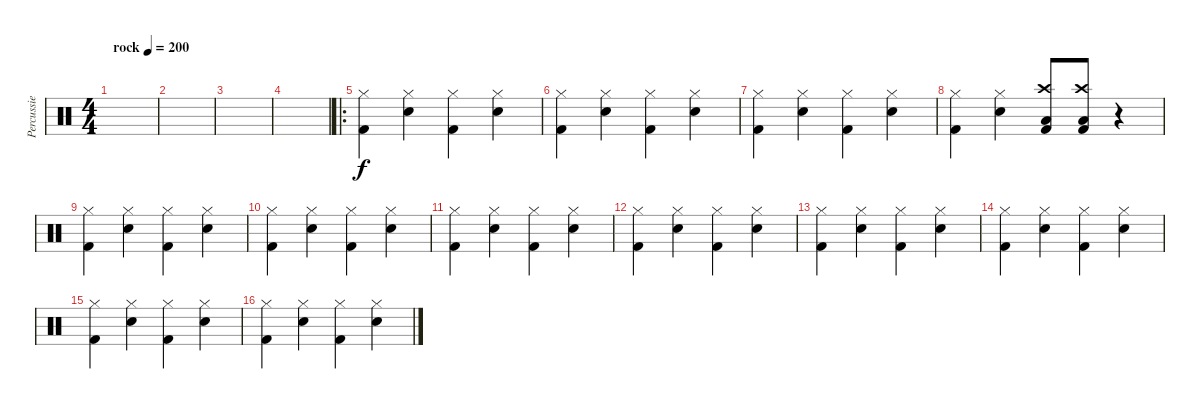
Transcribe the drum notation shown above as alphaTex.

\track ("Percussie" "Percussie") {instrument percussion}
\staff {score}
\articulation defaults
\ts (4 4)
\tempo (200 "rock")
\clef neutral
\ks c
|
|
|
|
\ro
("Hi-Hat (closed)" "Kick (hit) 2").4 ("Hi-Hat (closed)" "Snare (hit) 2").4 ("Hi-Hat (closed)" "Kick (hit) 2").4 ("Hi-Hat (closed)" "Snare (hit) 2").4 |
("Hi-Hat (closed)" "Kick (hit) 2").4 ("Hi-Hat (closed)" "Snare (hit) 2").4 ("Hi-Hat (closed)" "Kick (hit) 2").4 ("Hi-Hat (closed)" "Snare (hit) 2").4 |
("Hi-Hat (closed)" "Kick (hit) 2").4 ("Hi-Hat (closed)" "Snare (hit) 2").4 ("Hi-Hat (closed)" "Kick (hit) 2").4 ("Hi-Hat (closed)" "Snare (hit) 2").4 |
("Hi-Hat (closed)" "Kick (hit) 2").4 ("Hi-Hat (closed)" "Snare (hit) 2").4 ("Crash high (hit)" "Low Floor Tom (hit)" "Kick (hit) 2").8 ("Crash high (hit)" "Low Floor Tom (hit)" "Kick (hit) 2").8 r.4 |
("Hi-Hat (closed)" "Kick (hit) 2").4 ("Hi-Hat (closed)" "Snare (hit) 2").4 ("Hi-Hat (closed)" "Kick (hit) 2").4 ("Hi-Hat (closed)" "Snare (hit) 2").4 |
("Hi-Hat (closed)" "Kick (hit) 2").4 ("Hi-Hat (closed)" "Snare (hit) 2").4 ("Hi-Hat (closed)" "Kick (hit) 2").4 ("Hi-Hat (closed)" "Snare (hit) 2").4 |
("Hi-Hat (closed)" "Kick (hit) 2").4 ("Hi-Hat (closed)" "Snare (hit) 2").4 ("Hi-Hat (closed)" "Kick (hit) 2").4 ("Hi-Hat (closed)" "Snare (hit) 2").4 |
("Hi-Hat (closed)" "Kick (hit) 2").4 ("Hi-Hat (closed)" "Snare (hit) 2").4 ("Hi-Hat (closed)" "Kick (hit) 2").4 ("Hi-Hat (closed)" "Snare (hit) 2").4 |
("Hi-Hat (closed)" "Kick (hit) 2").4 ("Hi-Hat (closed)" "Snare (hit) 2").4 ("Hi-Hat (closed)" "Kick (hit) 2").4 ("Hi-Hat (closed)" "Snare (hit) 2").4 |
("Hi-Hat (closed)" "Kick (hit) 2").4 ("Hi-Hat (closed)" "Snare (hit) 2").4 ("Hi-Hat (closed)" "Kick (hit) 2").4 ("Hi-Hat (closed)" "Snare (hit) 2").4 |
("Hi-Hat (closed)" "Kick (hit) 2").4 ("Hi-Hat (closed)" "Snare (hit) 2").4 ("Hi-Hat (closed)" "Kick (hit) 2").4 ("Hi-Hat (closed)" "Snare (hit) 2").4 |
("Hi-Hat (closed)" "Kick (hit) 2").4 ("Hi-Hat (closed)" "Snare (hit) 2").4 ("Hi-Hat (closed)" "Kick (hit) 2").4 ("Hi-Hat (closed)" "Snare (hit) 2").4
